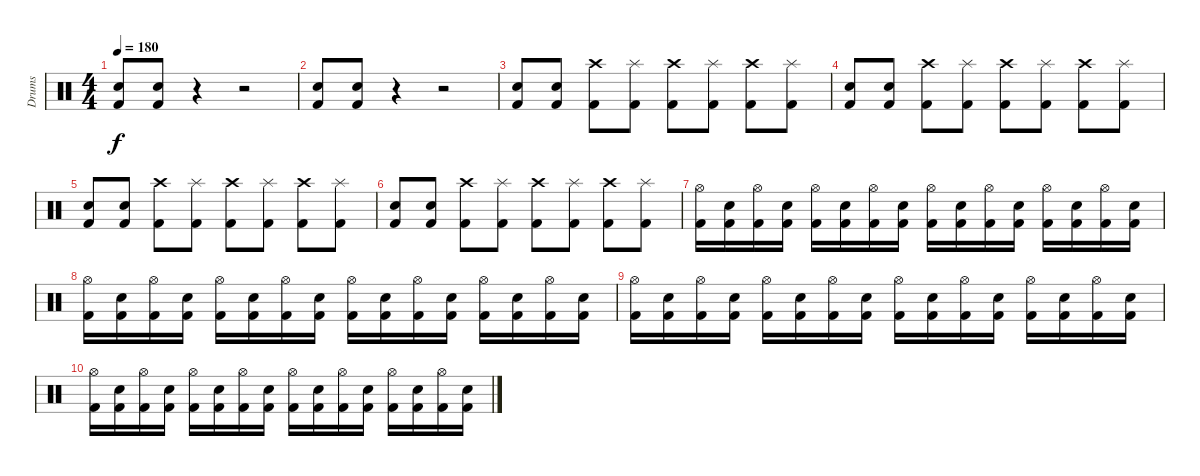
\track ("Drums" "Drums") {instrument percussion}
\staff {score}
\articulation defaults
\ts (4 4)
\tempo 180
\clef neutral
\ks c
("Snare (hit) 2" "Kick (hit) 2").8{dy f} ("Snare (hit) 2" "Kick (hit) 2").8 r.4 r.2 |
("Snare (hit) 2" "Kick (hit) 2").8 ("Snare (hit) 2" "Kick (hit) 2").8 r.4 r.2 |
("Snare (hit) 2" "Kick (hit) 2").8 ("Snare (hit) 2" "Kick (hit) 2").8 ("Crash high (hit)" "Kick (hit) 2").8 ("Splash (hit)" "Kick (hit) 2").8 ("Crash high (hit)" "Kick (hit) 2").8 ("Splash (hit)" "Kick (hit) 2").8 ("Crash high (hit)" "Kick (hit) 2").8 ("Splash (hit)" "Kick (hit) 2").8 |
("Snare (hit) 2" "Kick (hit) 2").8 ("Snare (hit) 2" "Kick (hit) 2").8 ("Crash high (hit)" "Kick (hit) 2").8 ("Splash (hit)" "Kick (hit) 2").8 ("Crash high (hit)" "Kick (hit) 2").8 ("Splash (hit)" "Kick (hit) 2").8 ("Crash high (hit)" "Kick (hit) 2").8 ("Splash (hit)" "Kick (hit) 2").8 |
("Snare (hit) 2" "Kick (hit) 2").8 ("Snare (hit) 2" "Kick (hit) 2").8 ("Crash high (hit)" "Kick (hit) 2").8 ("Splash (hit)" "Kick (hit) 2").8 ("Crash high (hit)" "Kick (hit) 2").8 ("Splash (hit)" "Kick (hit) 2").8 ("Crash high (hit)" "Kick (hit) 2").8 ("Splash (hit)" "Kick (hit) 2").8 |
("Snare (hit) 2" "Kick (hit) 2").8 ("Snare (hit) 2" "Kick (hit) 2").8 ("Crash high (hit)" "Kick (hit) 2").8 ("Splash (hit)" "Kick (hit) 2").8 ("Crash high (hit)" "Kick (hit) 2").8 ("Splash (hit)" "Kick (hit) 2").8 ("Crash high (hit)" "Kick (hit) 2").8 ("Splash (hit)" "Kick (hit) 2").8 |
("Hi-Hat (open)" "Kick (hit) 2").16 ("Snare (hit) 2" "Kick (hit) 2").16 ("Hi-Hat (open)" "Kick (hit) 2").16 ("Snare (hit) 2" "Kick (hit) 2").16 ("Hi-Hat (open)" "Kick (hit) 2").16 ("Snare (hit) 2" "Kick (hit) 2").16 ("Hi-Hat (open)" "Kick (hit) 2").16 ("Snare (hit) 2" "Kick (hit) 2").16 ("Hi-Hat (open)" "Kick (hit) 2").16 ("Snare (hit) 2" "Kick (hit) 2").16 ("Hi-Hat (open)" "Kick (hit) 2").16 ("Snare (hit) 2" "Kick (hit) 2").16 ("Hi-Hat (open)" "Kick (hit) 2").16 ("Snare (hit) 2" "Kick (hit) 2").16 ("Hi-Hat (open)" "Kick (hit) 2").16 ("Snare (hit) 2" "Kick (hit) 2").16 |
("Hi-Hat (open)" "Kick (hit) 2").16 ("Snare (hit) 2" "Kick (hit) 2").16 ("Hi-Hat (open)" "Kick (hit) 2").16 ("Snare (hit) 2" "Kick (hit) 2").16 ("Hi-Hat (open)" "Kick (hit) 2").16 ("Snare (hit) 2" "Kick (hit) 2").16 ("Hi-Hat (open)" "Kick (hit) 2").16 ("Snare (hit) 2" "Kick (hit) 2").16 ("Hi-Hat (open)" "Kick (hit) 2").16 ("Snare (hit) 2" "Kick (hit) 2").16 ("Hi-Hat (open)" "Kick (hit) 2").16 ("Snare (hit) 2" "Kick (hit) 2").16 ("Hi-Hat (open)" "Kick (hit) 2").16 ("Snare (hit) 2" "Kick (hit) 2").16 ("Hi-Hat (open)" "Kick (hit) 2").16 ("Snare (hit) 2" "Kick (hit) 2").16 |
("Hi-Hat (open)" "Kick (hit) 2").16 ("Snare (hit) 2" "Kick (hit) 2").16 ("Hi-Hat (open)" "Kick (hit) 2").16 ("Snare (hit) 2" "Kick (hit) 2").16 ("Hi-Hat (open)" "Kick (hit) 2").16 ("Snare (hit) 2" "Kick (hit) 2").16 ("Hi-Hat (open)" "Kick (hit) 2").16 ("Snare (hit) 2" "Kick (hit) 2").16 ("Hi-Hat (open)" "Kick (hit) 2").16 ("Snare (hit) 2" "Kick (hit) 2").16 ("Hi-Hat (open)" "Kick (hit) 2").16 ("Snare (hit) 2" "Kick (hit) 2").16 ("Hi-Hat (open)" "Kick (hit) 2").16 ("Snare (hit) 2" "Kick (hit) 2").16 ("Hi-Hat (open)" "Kick (hit) 2").16 ("Snare (hit) 2" "Kick (hit) 2").16 |
("Hi-Hat (open)" "Kick (hit) 2").16 ("Snare (hit) 2" "Kick (hit) 2").16 ("Hi-Hat (open)" "Kick (hit) 2").16 ("Snare (hit) 2" "Kick (hit) 2").16 ("Hi-Hat (open)" "Kick (hit) 2").16 ("Snare (hit) 2" "Kick (hit) 2").16 ("Hi-Hat (open)" "Kick (hit) 2").16 ("Snare (hit) 2" "Kick (hit) 2").16 ("Hi-Hat (open)" "Kick (hit) 2").16 ("Snare (hit) 2" "Kick (hit) 2").16 ("Hi-Hat (open)" "Kick (hit) 2").16 ("Snare (hit) 2" "Kick (hit) 2").16 ("Hi-Hat (open)" "Kick (hit) 2").16 ("Snare (hit) 2" "Kick (hit) 2").16 ("Hi-Hat (open)" "Kick (hit) 2").16 ("Snare (hit) 2" "Kick (hit) 2").16
